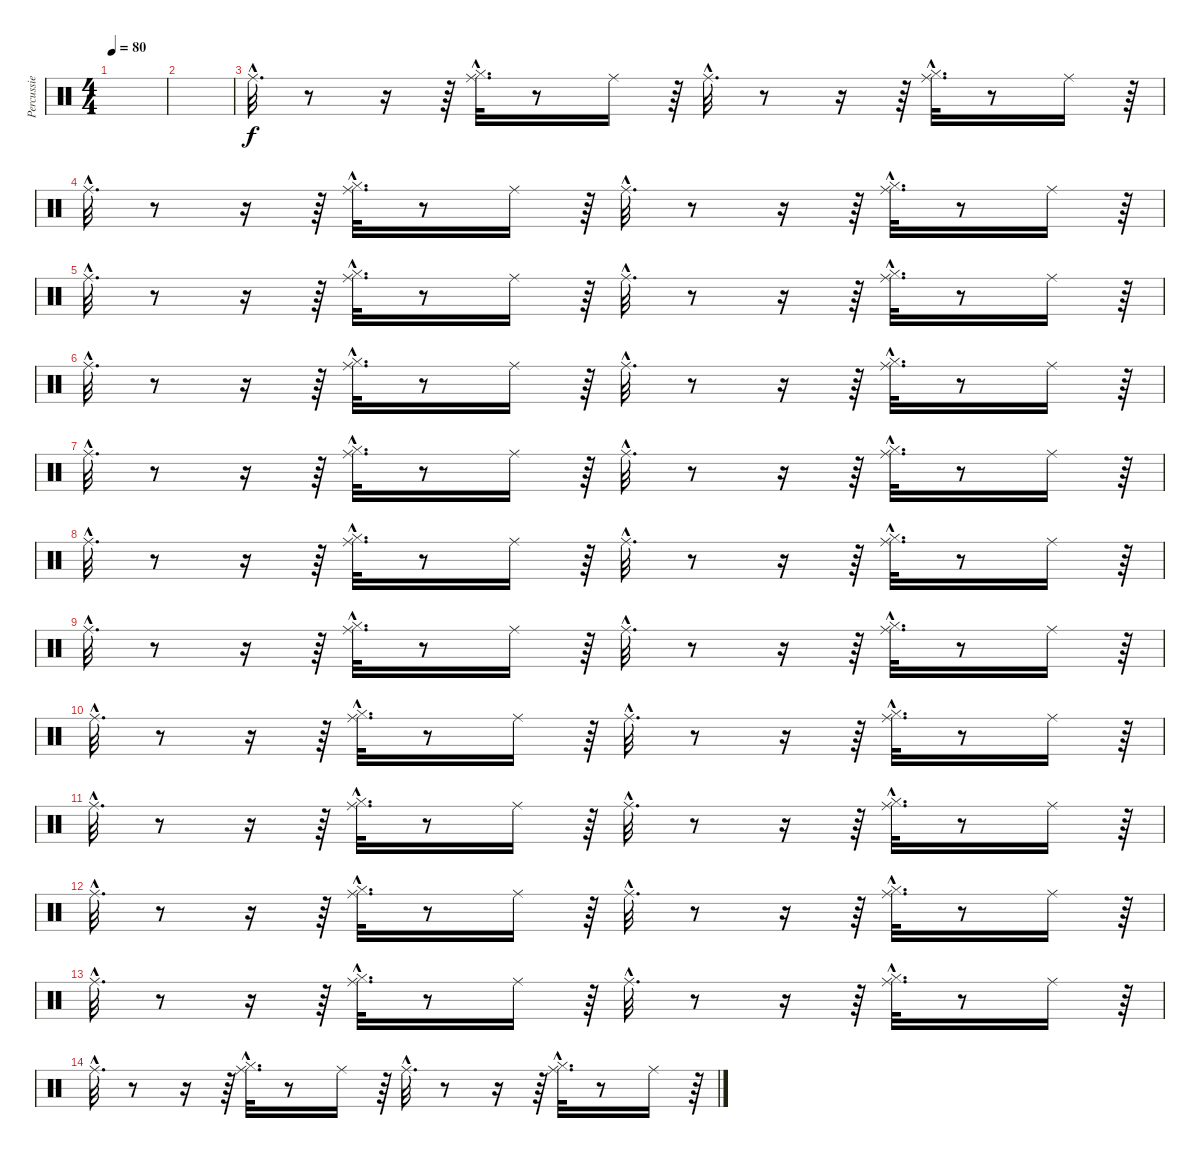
\track ("Percussie" "Percussie") {instrument percussion}
\staff {score}
\articulation defaults
\ts (4 4)
\tempo 80
\clef neutral
\ks c
|
|
"Ride (middle)"{hac}.32{d} r.8 r.16 r.64 ("Hi-Hat (closed)"{hac} "Ride (middle)"{hac}).32{d} r.8 "Ride (middle)".16 r.64 "Ride (middle)"{hac}.32{d} r.8 r.16 r.64 ("Hi-Hat (closed)"{hac} "Ride (middle)"{hac}).32{d} r.8 "Ride (middle)".16 r.64 |
"Ride (middle)"{hac}.32{d} r.8 r.16 r.64 ("Hi-Hat (closed)"{hac} "Ride (middle)"{hac}).32{d} r.8 "Ride (middle)".16 r.64 "Ride (middle)"{hac}.32{d} r.8 r.16 r.64 ("Hi-Hat (closed)"{hac} "Ride (middle)"{hac}).32{d} r.8 "Ride (middle)".16 r.64 |
"Ride (middle)"{hac}.32{d} r.8 r.16 r.64 ("Hi-Hat (closed)"{hac} "Ride (middle)"{hac}).32{d} r.8 "Ride (middle)".16 r.64 "Ride (middle)"{hac}.32{d} r.8 r.16 r.64 ("Hi-Hat (closed)"{hac} "Ride (middle)"{hac}).32{d} r.8 "Ride (middle)".16 r.64 |
"Ride (middle)"{hac}.32{d} r.8 r.16 r.64 ("Hi-Hat (closed)"{hac} "Ride (middle)"{hac}).32{d} r.8 "Ride (middle)".16 r.64 "Ride (middle)"{hac}.32{d} r.8 r.16 r.64 ("Hi-Hat (closed)"{hac} "Ride (middle)"{hac}).32{d} r.8 "Ride (middle)".16 r.64 |
"Ride (middle)"{hac}.32{d} r.8 r.16 r.64 ("Hi-Hat (closed)"{hac} "Ride (middle)"{hac}).32{d} r.8 "Ride (middle)".16 r.64 "Ride (middle)"{hac}.32{d} r.8 r.16 r.64 ("Hi-Hat (closed)"{hac} "Ride (middle)"{hac}).32{d} r.8 "Ride (middle)".16 r.64 |
"Ride (middle)"{hac}.32{d} r.8 r.16 r.64 ("Hi-Hat (closed)"{hac} "Ride (middle)"{hac}).32{d} r.8 "Ride (middle)".16 r.64 "Ride (middle)"{hac}.32{d} r.8 r.16 r.64 ("Hi-Hat (closed)"{hac} "Ride (middle)"{hac}).32{d} r.8 "Ride (middle)".16 r.64 |
"Ride (middle)"{hac}.32{d} r.8 r.16 r.64 ("Hi-Hat (closed)"{hac} "Ride (middle)"{hac}).32{d} r.8 "Ride (middle)".16 r.64 "Ride (middle)"{hac}.32{d} r.8 r.16 r.64 ("Hi-Hat (closed)"{hac} "Ride (middle)"{hac}).32{d} r.8 "Ride (middle)".16 r.64 |
"Ride (middle)"{hac}.32{d} r.8 r.16 r.64 ("Hi-Hat (closed)"{hac} "Ride (middle)"{hac}).32{d} r.8 "Ride (middle)".16 r.64 "Ride (middle)"{hac}.32{d} r.8 r.16 r.64 ("Hi-Hat (closed)"{hac} "Ride (middle)"{hac}).32{d} r.8 "Ride (middle)".16 r.64 |
"Ride (middle)"{hac}.32{d} r.8 r.16 r.64 ("Hi-Hat (closed)"{hac} "Ride (middle)"{hac}).32{d} r.8 "Ride (middle)".16 r.64 "Ride (middle)"{hac}.32{d} r.8 r.16 r.64 ("Hi-Hat (closed)"{hac} "Ride (middle)"{hac}).32{d} r.8 "Ride (middle)".16 r.64 |
"Ride (middle)"{hac}.32{d} r.8 r.16 r.64 ("Hi-Hat (closed)"{hac} "Ride (middle)"{hac}).32{d} r.8 "Ride (middle)".16 r.64 "Ride (middle)"{hac}.32{d} r.8 r.16 r.64 ("Hi-Hat (closed)"{hac} "Ride (middle)"{hac}).32{d} r.8 "Ride (middle)".16 r.64 |
"Ride (middle)"{hac}.32{d} r.8 r.16 r.64 ("Hi-Hat (closed)"{hac} "Ride (middle)"{hac}).32{d} r.8 "Ride (middle)".16 r.64 "Ride (middle)"{hac}.32{d} r.8 r.16 r.64 ("Hi-Hat (closed)"{hac} "Ride (middle)"{hac}).32{d} r.8 "Ride (middle)".16 r.64 |
"Ride (middle)"{hac}.32{d} r.8 r.16 r.64 ("Hi-Hat (closed)"{hac} "Ride (middle)"{hac}).32{d} r.8 "Ride (middle)".16 r.64 "Ride (middle)"{hac}.32{d} r.8 r.16 r.64 ("Hi-Hat (closed)"{hac} "Ride (middle)"{hac}).32{d} r.8 "Ride (middle)".16 r.64
